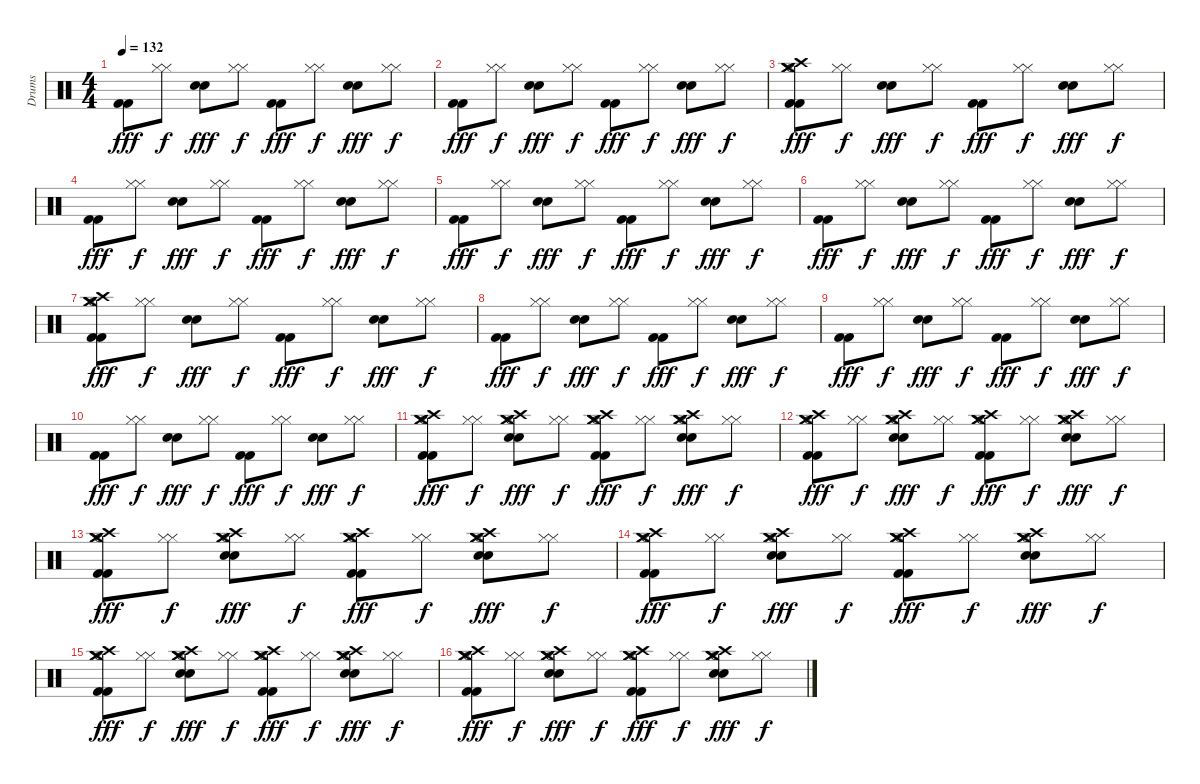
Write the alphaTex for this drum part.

\track ("Drums" "Drums") {instrument percussion}
\staff {score}
\articulation defaults
\ts (4 4)
\tempo 132
\clef neutral
\ks c
("Kick (hit) 2" "Kick (hit) 2").8{dy fff} ("Hi-Hat (closed)" "Hi-Hat (closed)").8{dy f} ("Snare (hit) 2" "Snare (hit) 2").8{dy fff} ("Hi-Hat (closed)" "Hi-Hat (closed)").8{dy f} ("Kick (hit) 2" "Kick (hit) 2").8{dy fff} ("Hi-Hat (closed)" "Hi-Hat (closed)").8{dy f} ("Snare (hit) 2" "Snare (hit) 2").8{dy fff} ("Hi-Hat (closed)" "Hi-Hat (closed)").8{dy f} |
("Kick (hit) 2" "Kick (hit) 2").8{dy fff} ("Hi-Hat (closed)" "Hi-Hat (closed)").8{dy f} ("Snare (hit) 2" "Snare (hit) 2").8{dy fff} ("Hi-Hat (closed)" "Hi-Hat (closed)").8{dy f} ("Kick (hit) 2" "Kick (hit) 2").8{dy fff} ("Hi-Hat (closed)" "Hi-Hat (closed)").8{dy f} ("Snare (hit) 2" "Snare (hit) 2").8{dy fff} ("Hi-Hat (closed)" "Hi-Hat (closed)").8{dy f} |
("Kick (hit) 2" "Kick (hit) 2" "Crash high (hit)" "Hi-Hat (open)" "Crash medium (hit)" "Crash medium (hit)").8{dy fff} ("Hi-Hat (closed)" "Hi-Hat (closed)").8{dy f} ("Snare (hit) 2" "Snare (hit) 2").8{dy fff} ("Hi-Hat (closed)" "Hi-Hat (closed)").8{dy f} ("Kick (hit) 2" "Kick (hit) 2").8{dy fff} ("Hi-Hat (closed)" "Hi-Hat (closed)").8{dy f} ("Snare (hit) 2" "Snare (hit) 2").8{dy fff} ("Hi-Hat (closed)" "Hi-Hat (closed)").8{dy f} |
("Kick (hit) 2" "Kick (hit) 2").8{dy fff} ("Hi-Hat (closed)" "Hi-Hat (closed)").8{dy f} ("Snare (hit) 2" "Snare (hit) 2").8{dy fff} ("Hi-Hat (closed)" "Hi-Hat (closed)").8{dy f} ("Kick (hit) 2" "Kick (hit) 2").8{dy fff} ("Hi-Hat (closed)" "Hi-Hat (closed)").8{dy f} ("Snare (hit) 2" "Snare (hit) 2").8{dy fff} ("Hi-Hat (closed)" "Hi-Hat (closed)").8{dy f} |
("Kick (hit) 2" "Kick (hit) 2").8{dy fff} ("Hi-Hat (closed)" "Hi-Hat (closed)").8{dy f} ("Snare (hit) 2" "Snare (hit) 2").8{dy fff} ("Hi-Hat (closed)" "Hi-Hat (closed)").8{dy f} ("Kick (hit) 2" "Kick (hit) 2").8{dy fff} ("Hi-Hat (closed)" "Hi-Hat (closed)").8{dy f} ("Snare (hit) 2" "Snare (hit) 2").8{dy fff} ("Hi-Hat (closed)" "Hi-Hat (closed)").8{dy f} |
("Kick (hit) 2" "Kick (hit) 2").8{dy fff} ("Hi-Hat (closed)" "Hi-Hat (closed)").8{dy f} ("Snare (hit) 2" "Snare (hit) 2").8{dy fff} ("Hi-Hat (closed)" "Hi-Hat (closed)").8{dy f} ("Kick (hit) 2" "Kick (hit) 2").8{dy fff} ("Hi-Hat (closed)" "Hi-Hat (closed)").8{dy f} ("Snare (hit) 2" "Snare (hit) 2").8{dy fff} ("Hi-Hat (closed)" "Hi-Hat (closed)").8{dy f} |
("Kick (hit) 2" "Kick (hit) 2" "Crash high (hit)" "Hi-Hat (open)" "Crash medium (hit)" "Crash medium (hit)").8{dy fff} ("Hi-Hat (closed)" "Hi-Hat (closed)").8{dy f} ("Snare (hit) 2" "Snare (hit) 2").8{dy fff} ("Hi-Hat (closed)" "Hi-Hat (closed)").8{dy f} ("Kick (hit) 2" "Kick (hit) 2").8{dy fff} ("Hi-Hat (closed)" "Hi-Hat (closed)").8{dy f} ("Snare (hit) 2" "Snare (hit) 2").8{dy fff} ("Hi-Hat (closed)" "Hi-Hat (closed)").8{dy f} |
("Kick (hit) 2" "Kick (hit) 2").8{dy fff} ("Hi-Hat (closed)" "Hi-Hat (closed)").8{dy f} ("Snare (hit) 2" "Snare (hit) 2").8{dy fff} ("Hi-Hat (closed)" "Hi-Hat (closed)").8{dy f} ("Kick (hit) 2" "Kick (hit) 2").8{dy fff} ("Hi-Hat (closed)" "Hi-Hat (closed)").8{dy f} ("Snare (hit) 2" "Snare (hit) 2").8{dy fff} ("Hi-Hat (closed)" "Hi-Hat (closed)").8{dy f} |
("Kick (hit) 2" "Kick (hit) 2").8{dy fff} ("Hi-Hat (closed)" "Hi-Hat (closed)").8{dy f} ("Snare (hit) 2" "Snare (hit) 2").8{dy fff} ("Hi-Hat (closed)" "Hi-Hat (closed)").8{dy f} ("Kick (hit) 2" "Kick (hit) 2").8{dy fff} ("Hi-Hat (closed)" "Hi-Hat (closed)").8{dy f} ("Snare (hit) 2" "Snare (hit) 2").8{dy fff} ("Hi-Hat (closed)" "Hi-Hat (closed)").8{dy f} |
("Kick (hit) 2" "Kick (hit) 2").8{dy fff} ("Hi-Hat (closed)" "Hi-Hat (closed)").8{dy f} ("Snare (hit) 2" "Snare (hit) 2").8{dy fff} ("Hi-Hat (closed)" "Hi-Hat (closed)").8{dy f} ("Kick (hit) 2" "Kick (hit) 2").8{dy fff} ("Hi-Hat (closed)" "Hi-Hat (closed)").8{dy f} ("Snare (hit) 2" "Snare (hit) 2").8{dy fff} ("Hi-Hat (closed)" "Hi-Hat (closed)").8{dy f} |
("Kick (hit) 2" "Kick (hit) 2" "Crash high (hit)" "Hi-Hat (open)" "Crash medium (hit)" "Crash medium (hit)").8{dy fff} ("Hi-Hat (closed)" "Hi-Hat (closed)").8{dy f} ("Snare (hit) 2" "Snare (hit) 2" "Crash high (hit)" "Hi-Hat (open)" "Crash medium (hit)" "Crash medium (hit)").8{dy fff} ("Hi-Hat (closed)" "Hi-Hat (closed)").8{dy f} ("Kick (hit) 2" "Kick (hit) 2" "Crash high (hit)" "Hi-Hat (open)" "Crash medium (hit)" "Crash medium (hit)").8{dy fff} ("Hi-Hat (closed)" "Hi-Hat (closed)").8{dy f} ("Snare (hit) 2" "Snare (hit) 2" "Crash high (hit)" "Hi-Hat (open)" "Crash medium (hit)" "Crash medium (hit)").8{dy fff} ("Hi-Hat (closed)" "Hi-Hat (closed)").8{dy f} |
("Kick (hit) 2" "Kick (hit) 2" "Crash high (hit)" "Hi-Hat (open)" "Crash medium (hit)" "Crash medium (hit)").8{dy fff} ("Hi-Hat (closed)" "Hi-Hat (closed)").8{dy f} ("Snare (hit) 2" "Snare (hit) 2" "Crash high (hit)" "Hi-Hat (open)" "Crash medium (hit)" "Crash medium (hit)").8{dy fff} ("Hi-Hat (closed)" "Hi-Hat (closed)").8{dy f} ("Kick (hit) 2" "Kick (hit) 2" "Crash high (hit)" "Hi-Hat (open)" "Crash medium (hit)" "Crash medium (hit)").8{dy fff} ("Hi-Hat (closed)" "Hi-Hat (closed)").8{dy f} ("Snare (hit) 2" "Snare (hit) 2" "Crash high (hit)" "Hi-Hat (open)" "Crash medium (hit)" "Crash medium (hit)").8{dy fff} ("Hi-Hat (closed)" "Hi-Hat (closed)").8{dy f} |
("Kick (hit) 2" "Kick (hit) 2" "Crash high (hit)" "Hi-Hat (open)" "Crash medium (hit)" "Crash medium (hit)").8{dy fff} ("Hi-Hat (closed)" "Hi-Hat (closed)").8{dy f} ("Snare (hit) 2" "Snare (hit) 2" "Crash high (hit)" "Hi-Hat (open)" "Crash medium (hit)" "Crash medium (hit)").8{dy fff} ("Hi-Hat (closed)" "Hi-Hat (closed)").8{dy f} ("Kick (hit) 2" "Kick (hit) 2" "Crash high (hit)" "Hi-Hat (open)" "Crash medium (hit)" "Crash medium (hit)").8{dy fff} ("Hi-Hat (closed)" "Hi-Hat (closed)").8{dy f} ("Snare (hit) 2" "Snare (hit) 2" "Crash high (hit)" "Hi-Hat (open)" "Crash medium (hit)" "Crash medium (hit)").8{dy fff} ("Hi-Hat (closed)" "Hi-Hat (closed)").8{dy f} |
("Kick (hit) 2" "Kick (hit) 2" "Crash high (hit)" "Hi-Hat (open)" "Crash medium (hit)" "Crash medium (hit)").8{dy fff} ("Hi-Hat (closed)" "Hi-Hat (closed)").8{dy f} ("Snare (hit) 2" "Snare (hit) 2" "Crash high (hit)" "Hi-Hat (open)" "Crash medium (hit)" "Crash medium (hit)").8{dy fff} ("Hi-Hat (closed)" "Hi-Hat (closed)").8{dy f} ("Kick (hit) 2" "Kick (hit) 2" "Crash high (hit)" "Hi-Hat (open)" "Crash medium (hit)" "Crash medium (hit)").8{dy fff} ("Hi-Hat (closed)" "Hi-Hat (closed)").8{dy f} ("Snare (hit) 2" "Snare (hit) 2" "Crash high (hit)" "Hi-Hat (open)" "Crash medium (hit)" "Crash medium (hit)").8{dy fff} ("Hi-Hat (closed)" "Hi-Hat (closed)").8{dy f} |
("Kick (hit) 2" "Kick (hit) 2" "Crash high (hit)" "Hi-Hat (open)" "Crash medium (hit)" "Crash medium (hit)").8{dy fff} ("Hi-Hat (closed)" "Hi-Hat (closed)").8{dy f} ("Snare (hit) 2" "Snare (hit) 2" "Crash high (hit)" "Hi-Hat (open)" "Crash medium (hit)" "Crash medium (hit)").8{dy fff} ("Hi-Hat (closed)" "Hi-Hat (closed)").8{dy f} ("Kick (hit) 2" "Kick (hit) 2" "Crash high (hit)" "Hi-Hat (open)" "Crash medium (hit)" "Crash medium (hit)").8{dy fff} ("Hi-Hat (closed)" "Hi-Hat (closed)").8{dy f} ("Snare (hit) 2" "Snare (hit) 2" "Crash high (hit)" "Hi-Hat (open)" "Crash medium (hit)" "Crash medium (hit)").8{dy fff} ("Hi-Hat (closed)" "Hi-Hat (closed)").8{dy f} |
("Kick (hit) 2" "Kick (hit) 2" "Crash high (hit)" "Hi-Hat (open)" "Crash medium (hit)" "Crash medium (hit)").8{dy fff} ("Hi-Hat (closed)" "Hi-Hat (closed)").8{dy f} ("Snare (hit) 2" "Snare (hit) 2" "Crash high (hit)" "Hi-Hat (open)" "Crash medium (hit)" "Crash medium (hit)").8{dy fff} ("Hi-Hat (closed)" "Hi-Hat (closed)").8{dy f} ("Kick (hit) 2" "Kick (hit) 2" "Crash high (hit)" "Hi-Hat (open)" "Crash medium (hit)" "Crash medium (hit)").8{dy fff} ("Hi-Hat (closed)" "Hi-Hat (closed)").8{dy f} ("Snare (hit) 2" "Snare (hit) 2" "Crash high (hit)" "Hi-Hat (open)" "Crash medium (hit)" "Crash medium (hit)").8{dy fff} ("Hi-Hat (closed)" "Hi-Hat (closed)").8{dy f}
